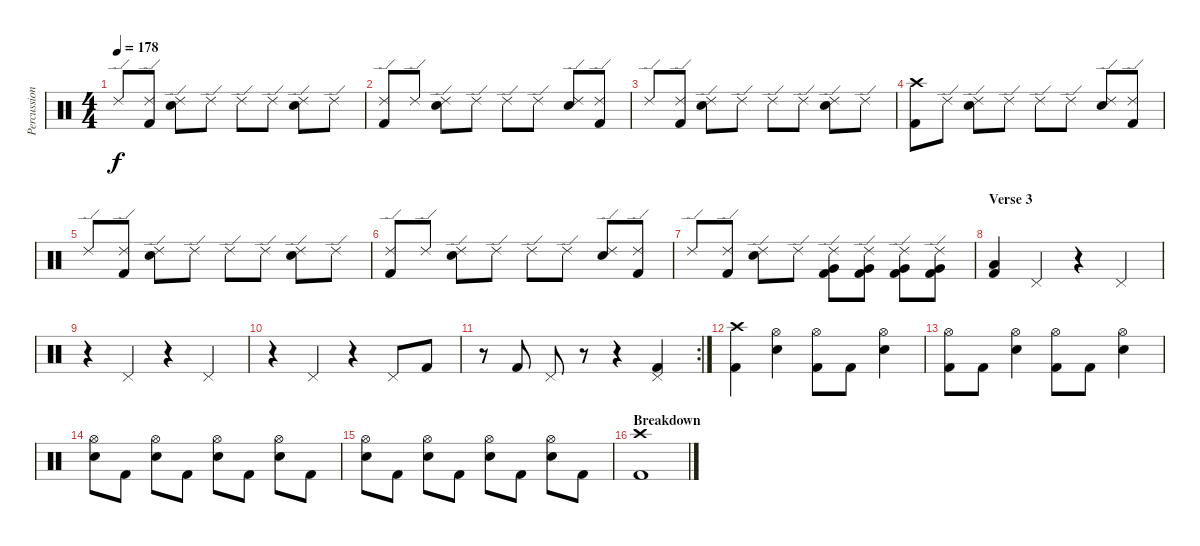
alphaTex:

\track ("Percussion" "Percussion") {instrument percussion}
\staff {score}
\articulation defaults
\ts (4 4)
\tempo 178
\clef neutral
\ks c "Ride (edge) 2".8{dy f}
("Ride (edge) 2" "Kick (hit) 2").8 ("Ride (edge) 2" "Snare (hit) 2").8 "Ride (edge) 2".8 "Ride (edge) 2".8 "Ride (edge) 2".8 ("Ride (edge) 2" "Snare (hit) 2").8 "Ride (edge) 2".8 |
("Ride (edge) 2" "Kick (hit) 2").8 "Ride (edge) 2".8 ("Ride (edge) 2" "Snare (hit) 2").8 "Ride (edge) 2".8 "Ride (edge) 2".8 "Ride (edge) 2".8 ("Ride (edge) 2" "Snare (hit) 2").8 ("Ride (edge) 2" "Kick (hit) 2").8 |
"Ride (edge) 2".8 ("Ride (edge) 2" "Kick (hit) 2").8 ("Ride (edge) 2" "Snare (hit) 2").8 "Ride (edge) 2".8 "Ride (edge) 2".8 "Ride (edge) 2".8 ("Ride (edge) 2" "Snare (hit) 2").8 "Ride (edge) 2".8 |
("Crash high (hit)" "Kick (hit) 2").8 "Ride (edge) 2".8 ("Ride (edge) 2" "Snare (hit) 2").8 "Ride (edge) 2".8 "Ride (edge) 2".8 "Ride (edge) 2".8 ("Ride (edge) 2" "Snare (hit) 2").8 ("Ride (edge) 2" "Kick (hit) 2").8 |
"Ride (edge) 2".8 ("Ride (edge) 2" "Kick (hit) 2").8 ("Ride (edge) 2" "Snare (hit) 2").8 "Ride (edge) 2".8 "Ride (edge) 2".8 "Ride (edge) 2".8 ("Ride (edge) 2" "Snare (hit) 2").8 "Ride (edge) 2".8 |
("Ride (edge) 2" "Kick (hit) 2").8 "Ride (edge) 2".8 ("Ride (edge) 2" "Snare (hit) 2").8 "Ride (edge) 2".8 "Ride (edge) 2".8 "Ride (edge) 2".8 ("Ride (edge) 2" "Snare (hit) 2").8 ("Ride (edge) 2" "Kick (hit) 2").8 |
"Ride (edge) 2".8 ("Ride (edge) 2" "Kick (hit) 2").8 ("Ride (edge) 2" "Snare (hit) 2").8 "Ride (edge) 2".8 ("Ride (edge) 2" "Very Low Tom (hit)" "Kick (hit) 2").8 ("Ride (edge) 2" "Very Low Tom (hit)" "Kick (hit) 2").8 ("Ride (edge) 2" "Very Low Tom (hit)" "Kick (hit) 2").8 ("Ride (edge) 2" "Very Low Tom (hit)" "Kick (hit) 2").8 |
\section ("" "Verse 3")
("Low Tom (hit)" "Kick (hit) 2").4 "Pedal Hi-Hat (hit)".4 r.4 "Pedal Hi-Hat (hit)".4 |
r.4 "Pedal Hi-Hat (hit)".4 r.4 "Pedal Hi-Hat (hit)".4 |
r.4 "Pedal Hi-Hat (hit)".4 r.4 "Pedal Hi-Hat (hit)".8 "Kick (hit) 2".8 |
\rc 2
r.8 "Kick (hit) 2".8 "Pedal Hi-Hat (hit)".8 r.8 r.4 ("Pedal Hi-Hat (hit)" "Kick (hit) 2").4 |
("Crash high (hit)" "Kick (hit) 2").4 ("Hi-Hat (open)" "Snare (hit) 2").4 ("Hi-Hat (open)" "Kick (hit) 2").8 "Kick (hit) 2".8 ("Hi-Hat (open)" "Snare (hit) 2").4 |
("Hi-Hat (open)" "Kick (hit) 2").8 "Kick (hit) 2".8 ("Hi-Hat (open)" "Snare (hit) 2").4 ("Hi-Hat (open)" "Kick (hit) 2").8 "Kick (hit) 2".8 ("Hi-Hat (open)" "Snare (hit) 2").4 |
("Hi-Hat (open)" "Snare (hit) 2").8 "Kick (hit) 2".8 ("Hi-Hat (open)" "Snare (hit) 2").8 "Kick (hit) 2".8 ("Hi-Hat (open)" "Snare (hit) 2").8 "Kick (hit) 2".8 ("Hi-Hat (open)" "Snare (hit) 2").8 "Kick (hit) 2".8 |
("Hi-Hat (open)" "Snare (hit) 2").8 "Kick (hit) 2".8 ("Hi-Hat (open)" "Snare (hit) 2").8 "Kick (hit) 2".8 ("Hi-Hat (open)" "Snare (hit) 2").8 "Kick (hit) 2".8 ("Hi-Hat (open)" "Snare (hit) 2").8 "Kick (hit) 2".8 |
\section ("" "Breakdown")
("Crash high (hit)" "Kick (hit) 2").1
